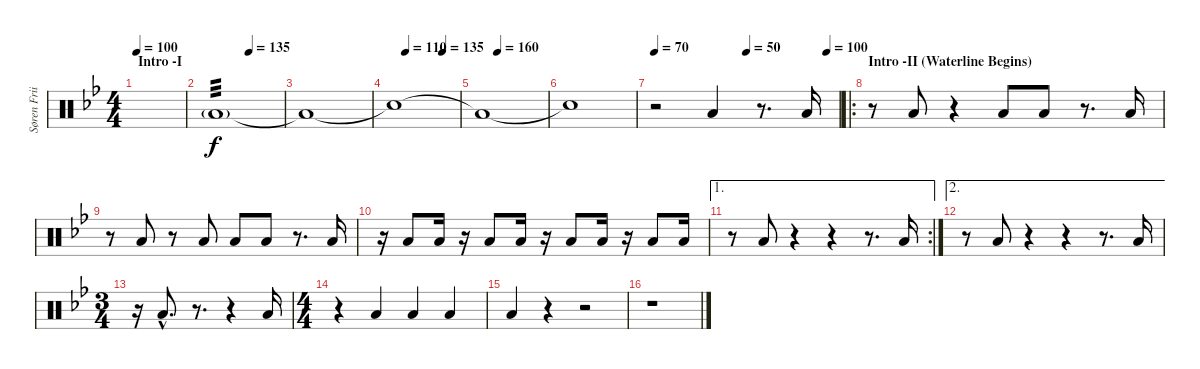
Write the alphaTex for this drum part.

\track ("Søren Friis (Drums)" "Søren Frii") {instrument percussion}
\staff {score}
\articulation defaults
\ts (4 4)
\section ("" "Intro -I")
\tempo 100
\clef neutral
\ks bb
|
\tempo (135 0.5)
"Low Floor Tom (hit)"{g}.1{tp 3 volume 10} |
"Low Floor Tom (hit)"{t}.1{dy f} |
\tempo (110 0.1875)
\tempo (135 0.75)
"Snare (hit)"{t}.1 |
\tempo (160 0.25)
"Low Floor Tom (hit)"{t}.1 |
"Snare (hit)"{t}.1 |
\tempo 70
\tempo (50 0.5)
\tempo (100 0.9375)
r.2 "Low Floor Tom (hit)".4 r.8{d} "Low Floor Tom (hit)".16{volume 16} |
\ro
\section ("" "Intro -II (Waterline Begins)")
r.8 "Low Floor Tom (hit)".8 r.4 "Low Floor Tom (hit)".8 "Low Floor Tom (hit)".8 r.8{d} "Low Floor Tom (hit)".16 |
r.8 "Low Floor Tom (hit)".8 r.8 "Low Floor Tom (hit)".8 "Low Floor Tom (hit)".8 "Low Floor Tom (hit)".8 r.8{d} "Low Floor Tom (hit)".16 |
r.16 "Low Floor Tom (hit)".8 "Low Floor Tom (hit)".16 r.16 "Low Floor Tom (hit)".8 "Low Floor Tom (hit)".16 r.16 "Low Floor Tom (hit)".8 "Low Floor Tom (hit)".16 r.16 "Low Floor Tom (hit)".8 "Low Floor Tom (hit)".16 |
\ae 1
\rc 2
r.8 "Low Floor Tom (hit)".8 r.4 r.4 r.8{d} "Low Floor Tom (hit)".16 |
\ae 2
r.8 "Low Floor Tom (hit)".8 r.4 r.4 r.8{d} "Low Floor Tom (hit)".16 |
\ts (3 4)
r.16 "Low Floor Tom (hit)"{hac}.8{d} r.8{d} r.4 "Low Floor Tom (hit)".16 |
\ts (4 4)
r.4 "Low Floor Tom (hit)".4 "Low Floor Tom (hit)".4 "Low Floor Tom (hit)".4 |
"Low Floor Tom (hit)".4 r.4 r.2 |
r.1
